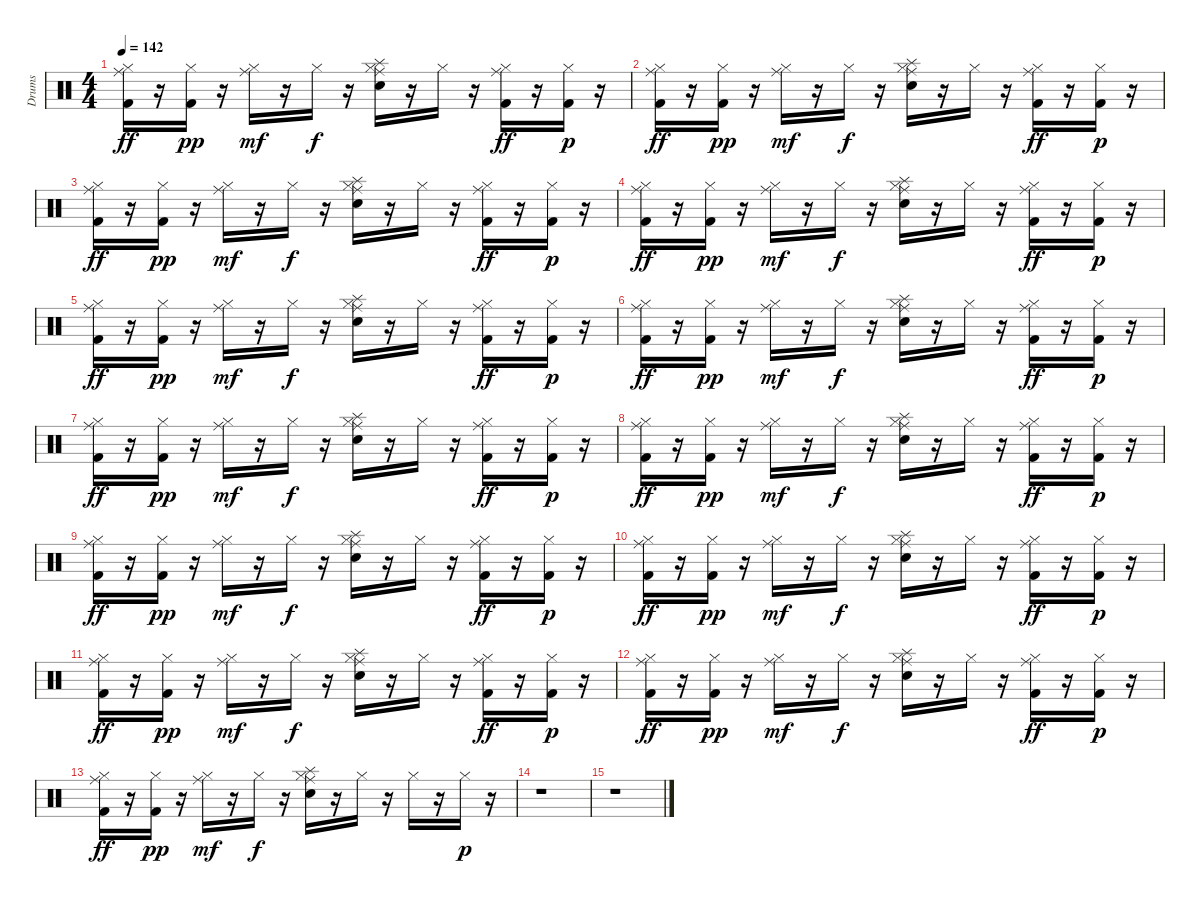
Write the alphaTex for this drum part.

\track ("Drums" "Drums") {instrument percussion}
\staff {score}
\articulation defaults
\ts (4 4)
\tempo 142
\clef neutral
\ks c
("Ride (middle)" "Hi-Hat (closed)" "Kick (hit) 2").16{dy ff} r.16 ("Hi-Hat (closed)" "Kick (hit) 2").16{dy pp} r.16 ("Ride (middle)" "Hi-Hat (closed)").16{dy mf} r.16 "Hi-Hat (closed)".16{dy f} r.16 ("Ride (middle)" "Hi-Hat (closed)" "Splash (hit)" "Snare (hit) 2").16 r.16 "Hi-Hat (closed)".16 r.16 ("Ride (middle)" "Hi-Hat (closed)" "Kick (hit) 2").16{dy ff} r.16 ("Hi-Hat (closed)" "Kick (hit) 2").16{dy p} r.16 |
("Ride (middle)" "Hi-Hat (closed)" "Kick (hit) 2").16{dy ff} r.16 ("Hi-Hat (closed)" "Kick (hit) 2").16{dy pp} r.16 ("Ride (middle)" "Hi-Hat (closed)").16{dy mf} r.16 "Hi-Hat (closed)".16{dy f} r.16 ("Ride (middle)" "Hi-Hat (closed)" "Splash (hit)" "Snare (hit) 2").16 r.16 "Hi-Hat (closed)".16 r.16 ("Ride (middle)" "Hi-Hat (closed)" "Kick (hit) 2").16{dy ff} r.16 ("Hi-Hat (closed)" "Kick (hit) 2").16{dy p} r.16 |
("Ride (middle)" "Hi-Hat (closed)" "Kick (hit) 2").16{dy ff} r.16 ("Hi-Hat (closed)" "Kick (hit) 2").16{dy pp} r.16 ("Ride (middle)" "Hi-Hat (closed)").16{dy mf} r.16 "Hi-Hat (closed)".16{dy f} r.16 ("Ride (middle)" "Hi-Hat (closed)" "Splash (hit)" "Snare (hit) 2").16 r.16 "Hi-Hat (closed)".16 r.16 ("Ride (middle)" "Hi-Hat (closed)" "Kick (hit) 2").16{dy ff} r.16 ("Hi-Hat (closed)" "Kick (hit) 2").16{dy p} r.16 |
("Ride (middle)" "Hi-Hat (closed)" "Kick (hit) 2").16{dy ff} r.16 ("Hi-Hat (closed)" "Kick (hit) 2").16{dy pp} r.16 ("Ride (middle)" "Hi-Hat (closed)").16{dy mf} r.16 "Hi-Hat (closed)".16{dy f} r.16 ("Ride (middle)" "Hi-Hat (closed)" "Splash (hit)" "Snare (hit) 2").16 r.16 "Hi-Hat (closed)".16 r.16 ("Ride (middle)" "Hi-Hat (closed)" "Kick (hit) 2").16{dy ff} r.16 ("Hi-Hat (closed)" "Kick (hit) 2").16{dy p} r.16 |
("Ride (middle)" "Hi-Hat (closed)" "Kick (hit) 2").16{dy ff} r.16 ("Hi-Hat (closed)" "Kick (hit) 2").16{dy pp} r.16 ("Ride (middle)" "Hi-Hat (closed)").16{dy mf} r.16 "Hi-Hat (closed)".16{dy f} r.16 ("Ride (middle)" "Hi-Hat (closed)" "Splash (hit)" "Snare (hit) 2").16 r.16 "Hi-Hat (closed)".16 r.16 ("Ride (middle)" "Hi-Hat (closed)" "Kick (hit) 2").16{dy ff} r.16 ("Hi-Hat (closed)" "Kick (hit) 2").16{dy p} r.16 |
("Ride (middle)" "Hi-Hat (closed)" "Kick (hit) 2").16{dy ff} r.16 ("Hi-Hat (closed)" "Kick (hit) 2").16{dy pp} r.16 ("Ride (middle)" "Hi-Hat (closed)").16{dy mf} r.16 "Hi-Hat (closed)".16{dy f} r.16 ("Ride (middle)" "Hi-Hat (closed)" "Splash (hit)" "Snare (hit) 2").16 r.16 "Hi-Hat (closed)".16 r.16 ("Ride (middle)" "Hi-Hat (closed)" "Kick (hit) 2").16{dy ff} r.16 ("Hi-Hat (closed)" "Kick (hit) 2").16{dy p} r.16 |
("Ride (middle)" "Hi-Hat (closed)" "Kick (hit) 2").16{dy ff} r.16 ("Hi-Hat (closed)" "Kick (hit) 2").16{dy pp} r.16 ("Ride (middle)" "Hi-Hat (closed)").16{dy mf} r.16 "Hi-Hat (closed)".16{dy f} r.16 ("Ride (middle)" "Hi-Hat (closed)" "Splash (hit)" "Snare (hit) 2").16 r.16 "Hi-Hat (closed)".16 r.16 ("Ride (middle)" "Hi-Hat (closed)" "Kick (hit) 2").16{dy ff} r.16 ("Hi-Hat (closed)" "Kick (hit) 2").16{dy p} r.16 |
("Ride (middle)" "Hi-Hat (closed)" "Kick (hit) 2").16{dy ff} r.16 ("Hi-Hat (closed)" "Kick (hit) 2").16{dy pp} r.16 ("Ride (middle)" "Hi-Hat (closed)").16{dy mf} r.16 "Hi-Hat (closed)".16{dy f} r.16 ("Ride (middle)" "Hi-Hat (closed)" "Splash (hit)" "Snare (hit) 2").16 r.16 "Hi-Hat (closed)".16 r.16 ("Ride (middle)" "Hi-Hat (closed)" "Kick (hit) 2").16{dy ff} r.16 ("Hi-Hat (closed)" "Kick (hit) 2").16{dy p} r.16 |
("Ride (middle)" "Hi-Hat (closed)" "Kick (hit) 2").16{dy ff} r.16 ("Hi-Hat (closed)" "Kick (hit) 2").16{dy pp} r.16 ("Ride (middle)" "Hi-Hat (closed)").16{dy mf} r.16 "Hi-Hat (closed)".16{dy f} r.16 ("Ride (middle)" "Hi-Hat (closed)" "Splash (hit)" "Snare (hit) 2").16 r.16 "Hi-Hat (closed)".16 r.16 ("Ride (middle)" "Hi-Hat (closed)" "Kick (hit) 2").16{dy ff} r.16 ("Hi-Hat (closed)" "Kick (hit) 2").16{dy p} r.16 |
("Ride (middle)" "Hi-Hat (closed)" "Kick (hit) 2").16{dy ff} r.16 ("Hi-Hat (closed)" "Kick (hit) 2").16{dy pp} r.16 ("Ride (middle)" "Hi-Hat (closed)").16{dy mf} r.16 "Hi-Hat (closed)".16{dy f} r.16 ("Ride (middle)" "Hi-Hat (closed)" "Splash (hit)" "Snare (hit) 2").16 r.16 "Hi-Hat (closed)".16 r.16 ("Ride (middle)" "Hi-Hat (closed)" "Kick (hit) 2").16{dy ff} r.16 ("Hi-Hat (closed)" "Kick (hit) 2").16{dy p} r.16 |
("Ride (middle)" "Hi-Hat (closed)" "Kick (hit) 2").16{dy ff} r.16 ("Hi-Hat (closed)" "Kick (hit) 2").16{dy pp} r.16 ("Ride (middle)" "Hi-Hat (closed)").16{dy mf} r.16 "Hi-Hat (closed)".16{dy f} r.16 ("Ride (middle)" "Hi-Hat (closed)" "Splash (hit)" "Snare (hit) 2").16 r.16 "Hi-Hat (closed)".16 r.16 ("Ride (middle)" "Hi-Hat (closed)" "Kick (hit) 2").16{dy ff} r.16 ("Hi-Hat (closed)" "Kick (hit) 2").16{dy p} r.16 |
("Ride (middle)" "Hi-Hat (closed)" "Kick (hit) 2").16{dy ff} r.16 ("Hi-Hat (closed)" "Kick (hit) 2").16{dy pp} r.16 ("Ride (middle)" "Hi-Hat (closed)").16{dy mf} r.16 "Hi-Hat (closed)".16{dy f} r.16 ("Ride (middle)" "Hi-Hat (closed)" "Splash (hit)" "Snare (hit) 2").16 r.16 "Hi-Hat (closed)".16 r.16 ("Ride (middle)" "Hi-Hat (closed)" "Kick (hit) 2").16{dy ff} r.16 ("Hi-Hat (closed)" "Kick (hit) 2").16{dy p} r.16 |
("Ride (middle)" "Hi-Hat (closed)" "Kick (hit) 2").16{dy ff} r.16 ("Hi-Hat (closed)" "Kick (hit) 2").16{dy pp} r.16 ("Ride (middle)" "Hi-Hat (closed)").16{dy mf} r.16 "Hi-Hat (closed)".16{dy f} r.16 ("Ride (middle)" "Hi-Hat (closed)" "Splash (hit)" "Snare (hit) 2").16 r.16 "Hi-Hat (closed)".16 r.16 "Hi-Hat (closed)".16 r.16 "Hi-Hat (closed)".16{dy p} r.16 |
r.1 |
r.1
